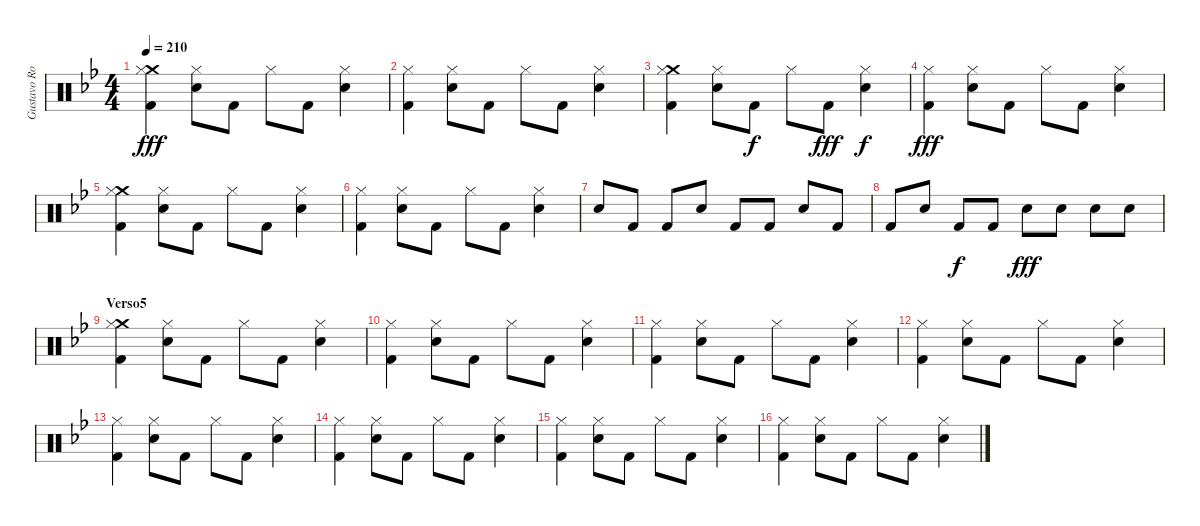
\track ("Gustavo Rowek" "Gustavo Ro") {instrument percussion}
\staff {score}
\articulation defaults
\ts (4 4)
\tempo 210
\clef neutral
\ks gminor
("Crash medium (hit)" "Hi-Hat (closed)" "Kick (hit) 2").4{dy fff} ("Hi-Hat (closed)" "Snare (hit) 2").8 "Kick (hit) 2".8 "Hi-Hat (closed)".8 "Kick (hit) 2".8 ("Hi-Hat (closed)" "Snare (hit) 2").4 |
("Hi-Hat (closed)" "Kick (hit) 2").4 ("Hi-Hat (closed)" "Snare (hit) 2").8 "Kick (hit) 2".8 "Hi-Hat (closed)".8 "Kick (hit) 2".8 ("Hi-Hat (closed)" "Snare (hit) 2").4 |
("Crash medium (hit)" "Hi-Hat (closed)" "Kick (hit) 2").4 ("Hi-Hat (closed)" "Snare (hit) 2").8 "Kick (hit) 2".8{dy f} "Hi-Hat (closed)".8 "Kick (hit) 2".8{dy fff} ("Hi-Hat (closed)" "Snare (hit) 2").4{dy f} |
("Hi-Hat (closed)" "Kick (hit) 2").4{dy fff} ("Hi-Hat (closed)" "Snare (hit) 2").8 "Kick (hit) 2".8 "Hi-Hat (closed)".8 "Kick (hit) 2".8 ("Hi-Hat (closed)" "Snare (hit) 2").4 |
("Crash medium (hit)" "Hi-Hat (closed)" "Kick (hit) 2").4 ("Hi-Hat (closed)" "Snare (hit) 2").8 "Kick (hit) 2".8 "Hi-Hat (closed)".8 "Kick (hit) 2".8 ("Hi-Hat (closed)" "Snare (hit) 2").4 |
("Hi-Hat (closed)" "Kick (hit) 2").4 ("Hi-Hat (closed)" "Snare (hit) 2").8 "Kick (hit) 2".8 "Hi-Hat (closed)".8 "Kick (hit) 2".8 ("Hi-Hat (closed)" "Snare (hit) 2").4 |
"Snare (hit) 2".8 "Kick (hit) 2".8 "Kick (hit) 2".8 "Snare (hit) 2".8 "Kick (hit) 2".8 "Kick (hit) 2".8 "Snare (hit) 2".8 "Kick (hit) 2".8 |
"Kick (hit) 2".8 "Snare (hit) 2".8 "Kick (hit) 2".8{dy f} "Kick (hit) 2".8 "Snare (hit) 2".8{dy fff} "Snare (hit) 2".8 "Snare (hit) 2".8 "Snare (hit) 2".8 |
\section ("" "Verso5")
("Crash medium (hit)" "Hi-Hat (closed)" "Kick (hit) 2").4 ("Hi-Hat (closed)" "Snare (hit) 2").8 "Kick (hit) 2".8 "Hi-Hat (closed)".8 "Kick (hit) 2".8 ("Hi-Hat (closed)" "Snare (hit) 2").4 |
("Hi-Hat (closed)" "Kick (hit) 2").4 ("Hi-Hat (closed)" "Snare (hit) 2").8 "Kick (hit) 2".8 "Hi-Hat (closed)".8 "Kick (hit) 2".8 ("Hi-Hat (closed)" "Snare (hit) 2").4 |
("Hi-Hat (closed)" "Kick (hit) 2").4 ("Hi-Hat (closed)" "Snare (hit) 2").8 "Kick (hit) 2".8 "Hi-Hat (closed)".8 "Kick (hit) 2".8 ("Hi-Hat (closed)" "Snare (hit) 2").4 |
("Hi-Hat (closed)" "Kick (hit) 2").4 ("Hi-Hat (closed)" "Snare (hit) 2").8 "Kick (hit) 2".8 "Hi-Hat (closed)".8 "Kick (hit) 2".8 ("Hi-Hat (closed)" "Snare (hit) 2").4 |
("Hi-Hat (closed)" "Kick (hit) 2").4 ("Hi-Hat (closed)" "Snare (hit) 2").8 "Kick (hit) 2".8 "Hi-Hat (closed)".8 "Kick (hit) 2".8 ("Hi-Hat (closed)" "Snare (hit) 2").4 |
("Hi-Hat (closed)" "Kick (hit) 2").4 ("Hi-Hat (closed)" "Snare (hit) 2").8 "Kick (hit) 2".8 "Hi-Hat (closed)".8 "Kick (hit) 2".8 ("Hi-Hat (closed)" "Snare (hit) 2").4 |
("Hi-Hat (closed)" "Kick (hit) 2").4 ("Hi-Hat (closed)" "Snare (hit) 2").8 "Kick (hit) 2".8 "Hi-Hat (closed)".8 "Kick (hit) 2".8 ("Hi-Hat (closed)" "Snare (hit) 2").4 |
("Hi-Hat (closed)" "Kick (hit) 2").4 ("Hi-Hat (closed)" "Snare (hit) 2").8 "Kick (hit) 2".8 "Hi-Hat (closed)".8 "Kick (hit) 2".8 ("Hi-Hat (closed)" "Snare (hit) 2").4
